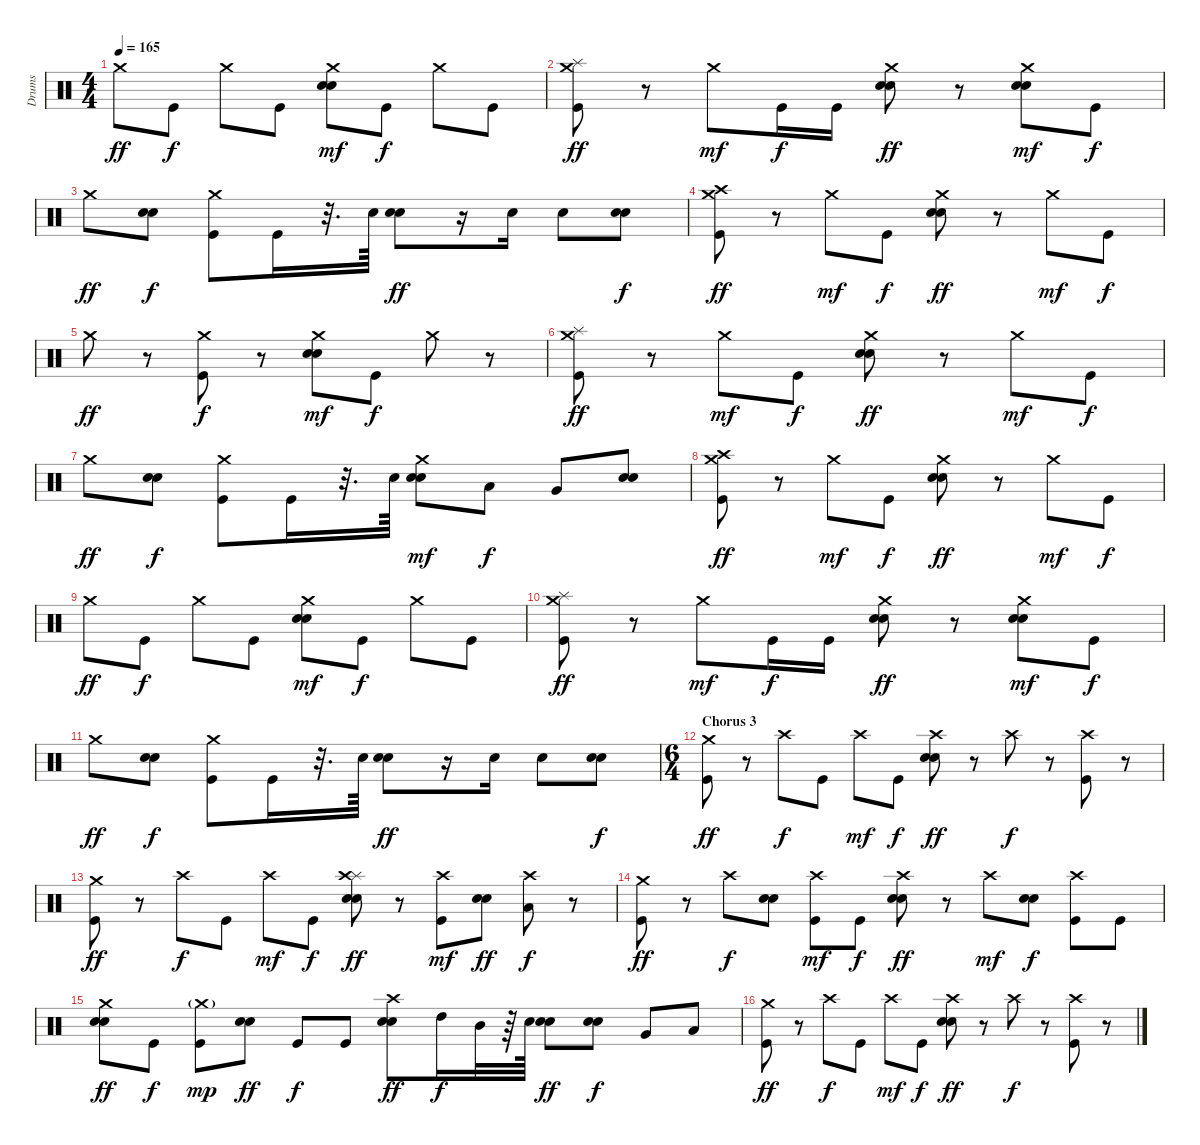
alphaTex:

\track ("Drums" "Drums") {instrument percussion}
\staff {score}
\articulation defaults
\ts (4 4)
\tempo 165
\clef neutral
\ks c "Crash medium (hit)".8{dy ff} "Kick (hit)".8{dy f} "Crash medium (hit)".8 "Kick (hit)".8
("Electric Snare (hit)" "Electric Snare (hit)" "Crash medium (hit)").8{dy mf} "Kick (hit)".8{dy f} "Crash medium (hit)".8 "Kick (hit)".8 |
("Kick (hit)" "Crash medium (hit)" "Splash (hit)").8{dy ff} r.8 "Crash medium (hit)".8{dy mf} "Kick (hit)".16{dy f} "Kick (hit)".16 ("Electric Snare (hit)" "Electric Snare (hit)" "Crash medium (hit)").8{dy ff} r.8 ("Electric Snare (hit)" "Electric Snare (hit)" "Crash medium (hit)").8{dy mf} "Kick (hit)".8{dy f} |
"Crash medium (hit)".8{dy ff} ("Electric Snare (hit)" "Electric Snare (hit)").8{dy f} ("Kick (hit)" "Crash medium (hit)").8 "Kick (hit)".16 r.32{d} "Electric Snare (hit)".64 ("Electric Snare (hit)" "Electric Snare (hit)").8{dy ff} r.16 "Electric Snare (hit)".16 "Electric Snare (hit)".8 ("Electric Snare (hit)" "Electric Snare (hit)").8{dy f} |
("Kick (hit)" "Crash medium (hit)" "Crash high (hit)").8{dy ff} r.8 "Crash medium (hit)".8{dy mf} "Kick (hit)".8{dy f} ("Electric Snare (hit)" "Electric Snare (hit)" "Crash medium (hit)").8{dy ff} r.8 "Crash medium (hit)".8{dy mf} "Kick (hit)".8{dy f} |
"Crash medium (hit)".8{dy ff} r.8 ("Kick (hit)" "Crash medium (hit)").8{dy f} r.8 ("Electric Snare (hit)" "Electric Snare (hit)" "Crash medium (hit)").8{dy mf} "Kick (hit)".8{dy f} "Crash medium (hit)".8 r.8 |
("Kick (hit)" "Crash medium (hit)" "Splash (hit)").8{dy ff} r.8 "Crash medium (hit)".8{dy mf} "Kick (hit)".8{dy f} ("Electric Snare (hit)" "Electric Snare (hit)" "Crash medium (hit)").8{dy ff} r.8 "Crash medium (hit)".8{dy mf} "Kick (hit)".8{dy f} |
"Crash medium (hit)".8{dy ff} ("Electric Snare (hit)" "Electric Snare (hit)").8{dy f} ("Kick (hit)" "Crash medium (hit)").8 "Kick (hit)".16 r.32{d} "Electric Snare (hit)".64 ("Electric Snare (hit)" "Electric Snare (hit)" "Crash medium (hit)").8{dy mf} "Low Tom (hit)".8{dy f} "Very Low Tom (hit)".8 ("Electric Snare (hit)" "Electric Snare (hit)").8 |
("Kick (hit)" "Crash medium (hit)" "Crash high (hit)").8{dy ff} r.8 "Crash medium (hit)".8{dy mf} "Kick (hit)".8{dy f} ("Electric Snare (hit)" "Electric Snare (hit)" "Crash medium (hit)").8{dy ff} r.8 "Crash medium (hit)".8{dy mf} "Kick (hit)".8{dy f} |
"Crash medium (hit)".8{dy ff} "Kick (hit)".8{dy f} "Crash medium (hit)".8 "Kick (hit)".8 ("Electric Snare (hit)" "Electric Snare (hit)" "Crash medium (hit)").8{dy mf} "Kick (hit)".8{dy f} "Crash medium (hit)".8 "Kick (hit)".8 |
("Kick (hit)" "Crash medium (hit)" "Splash (hit)").8{dy ff} r.8 "Crash medium (hit)".8{dy mf} "Kick (hit)".16{dy f} "Kick (hit)".16 ("Electric Snare (hit)" "Electric Snare (hit)" "Crash medium (hit)").8{dy ff} r.8 ("Electric Snare (hit)" "Electric Snare (hit)" "Crash medium (hit)").8{dy mf} "Kick (hit)".8{dy f} |
"Crash medium (hit)".8{dy ff} ("Electric Snare (hit)" "Electric Snare (hit)").8{dy f} ("Kick (hit)" "Crash medium (hit)").8 "Kick (hit)".16 r.32{d} "Electric Snare (hit)".64 ("Electric Snare (hit)" "Electric Snare (hit)").8{dy ff} r.16 "Electric Snare (hit)".16 "Electric Snare (hit)".8 ("Electric Snare (hit)" "Electric Snare (hit)").8{dy f} |
\ts (6 4)
\section ("" "Chorus 3")
("Kick (hit)" "Crash medium (hit)").8{dy ff} r.8 "Crash high (hit)".8{dy f} "Kick (hit)".8 "Crash high (hit)".8{dy mf} "Kick (hit)".8{dy f} ("Electric Snare (hit)" "Electric Snare (hit)" "Crash high (hit)").8{dy ff} r.8 "Crash high (hit)".8{dy f} r.8 ("Kick (hit)" "Crash high (hit)").8 r.8 |
("Kick (hit)" "Crash medium (hit)").8{dy ff} r.8 "Crash high (hit)".8{dy f} "Kick (hit)".8 "Crash high (hit)".8{dy mf} "Kick (hit)".8{dy f} ("Electric Snare (hit)" "Electric Snare (hit)" "Splash (hit)" "Crash high (hit)").8{dy ff} r.8 ("Kick (hit)" "Crash high (hit)").8{dy mf} ("Electric Snare (hit)" "Electric Snare (hit)").8{dy ff} ("Low Floor Tom (hit)" "Crash high (hit)").8{dy f} r.8 |
("Kick (hit)" "Crash medium (hit)").8{dy ff} r.8 "Crash high (hit)".8{dy f} ("Electric Snare (hit)" "Electric Snare (hit)").8 ("Kick (hit)" "Crash high (hit)").8{dy mf} "Kick (hit)".8{dy f} ("Electric Snare (hit)" "Electric Snare (hit)" "Crash high (hit)").8{dy ff} r.8 "Crash high (hit)".8{dy mf} ("Electric Snare (hit)" "Electric Snare (hit)").8{dy f} ("Kick (hit)" "Crash high (hit)").8 "Kick (hit)".8 |
("Electric Snare (hit)" "Electric Snare (hit)" "Crash medium (hit)").8{dy ff} "Kick (hit)".8{dy f} ("Kick (hit)" "Crash medium (hit)"{g}).8{dy mp} ("Electric Snare (hit)" "Electric Snare (hit)").8{dy ff} "Kick (hit)".8{dy f} "Kick (hit)".8 ("Electric Snare (hit)" "Electric Snare (hit)" "Crash high (hit)").8{dy ff} "High Tom (hit)".16{dy f} "Mid Tom (hit)".32 r.64 "Electric Snare (hit)".64 ("Electric Snare (hit)" "Electric Snare (hit)").8{dy ff} ("Electric Snare (hit)" "Electric Snare (hit)").8{dy f} "Very Low Tom (hit)".8 "Low Floor Tom (hit)".8 |
("Kick (hit)" "Crash medium (hit)").8{dy ff} r.8 "Crash high (hit)".8{dy f} "Kick (hit)".8 "Crash high (hit)".8{dy mf} "Kick (hit)".8{dy f} ("Electric Snare (hit)" "Electric Snare (hit)" "Crash high (hit)").8{dy ff} r.8 "Crash high (hit)".8{dy f} r.8 ("Kick (hit)" "Crash high (hit)").8 r.8
